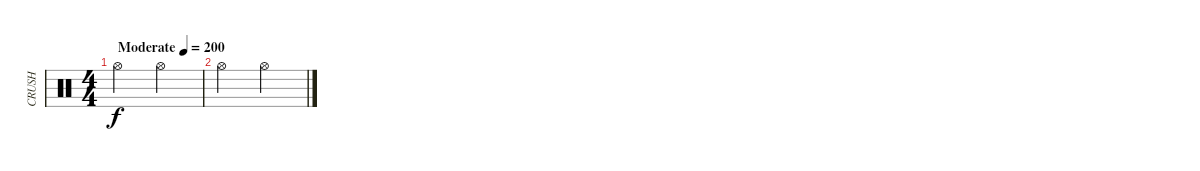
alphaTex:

\track ("CRUSH" "CRUSH") {instrument percussion}
\staff {score}
\articulation defaults
\ts (4 4)
\tempo (200 "Moderate")
\clef neutral
\ks c "Hi-Hat (open)".2{dy f} "Hi-Hat (open)".2
|
"Hi-Hat (open)".2 "Hi-Hat (open)".2
